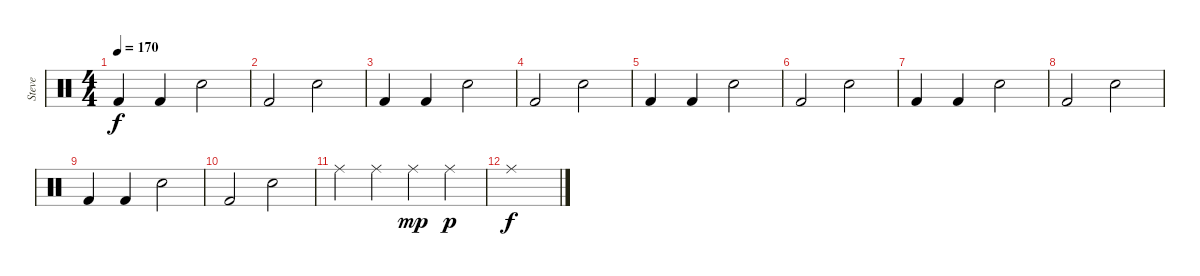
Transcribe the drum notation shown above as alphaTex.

\track ("Steve" "Steve") {instrument percussion}
\staff {score}
\articulation defaults
\ts (4 4)
\tempo 170
\clef neutral
\ks c "Kick (hit) 2".4{dy f} "Kick (hit) 2".4 "Electric Snare (hit)".2
|
"Kick (hit) 2".2 "Electric Snare (hit)".2 |
"Kick (hit) 2".4 "Kick (hit) 2".4 "Electric Snare (hit)".2 |
"Kick (hit) 2".2 "Electric Snare (hit)".2 |
"Kick (hit) 2".4 "Kick (hit) 2".4 "Electric Snare (hit)".2 |
"Kick (hit) 2".2 "Electric Snare (hit)".2 |
"Kick (hit) 2".4 "Kick (hit) 2".4 "Electric Snare (hit)".2 |
"Kick (hit) 2".2 "Electric Snare (hit)".2 |
"Kick (hit) 2".4 "Kick (hit) 2".4 "Electric Snare (hit)".2 |
"Kick (hit) 2".2 "Electric Snare (hit)".2 |
"Ride (middle)".4 "Ride (middle)".4 "Ride (middle)".4{dy mp} "Ride (middle)".4{dy p} |
"Ride (middle)".1{dy f}
